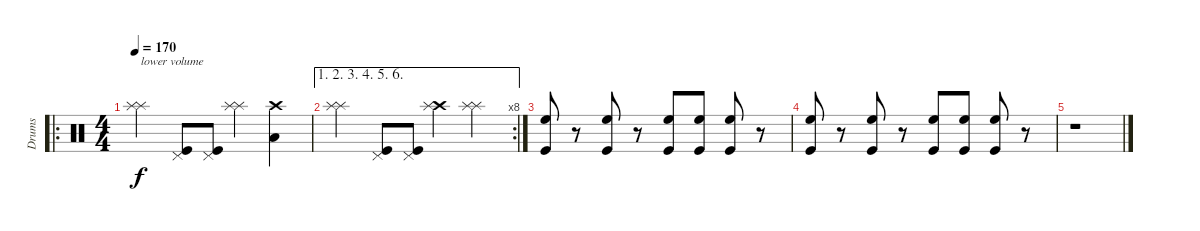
\track ("Drums" "Drums") {instrument percussion}
\staff {score}
\articulation defaults
\ro
\ts (4 4)
\tempo 170
\clef neutral
\ks c
("Splash (hit)" "Splash (hit)").4{txt "lower volume" dy f volume 11} ("Pedal Hi-Hat (hit)" "Kick (hit)").8 ("Pedal Hi-Hat (hit)" "Kick (hit)").8 ("Splash (hit)" "Splash (hit)").4 ("Crash high (hit)" "Low Tom (hit)").4 |
\ae (1 2 3 4 5 6)
\rc 8
("Splash (hit)" "Splash (hit)").4 ("Pedal Hi-Hat (hit)" "Kick (hit)").8 ("Pedal Hi-Hat (hit)" "Kick (hit)").8 ("Crash high (hit)" "Splash (hit)").4 ("Splash (hit)" "Splash (hit)").4 |
("Kick (hit)" "High Floor Tom (hit)").8{volume 16} r.8 ("Kick (hit)" "High Floor Tom (hit)").8 r.8 ("Kick (hit)" "High Floor Tom (hit)").8 ("Kick (hit)" "High Floor Tom (hit)").8 ("Kick (hit)" "High Floor Tom (hit)").8 r.8 |
("Kick (hit)" "High Floor Tom (hit)").8 r.8 ("Kick (hit)" "High Floor Tom (hit)").8 r.8 ("Kick (hit)" "High Floor Tom (hit)").8 ("Kick (hit)" "High Floor Tom (hit)").8 ("Kick (hit)" "High Floor Tom (hit)").8 r.8 |
r.1
